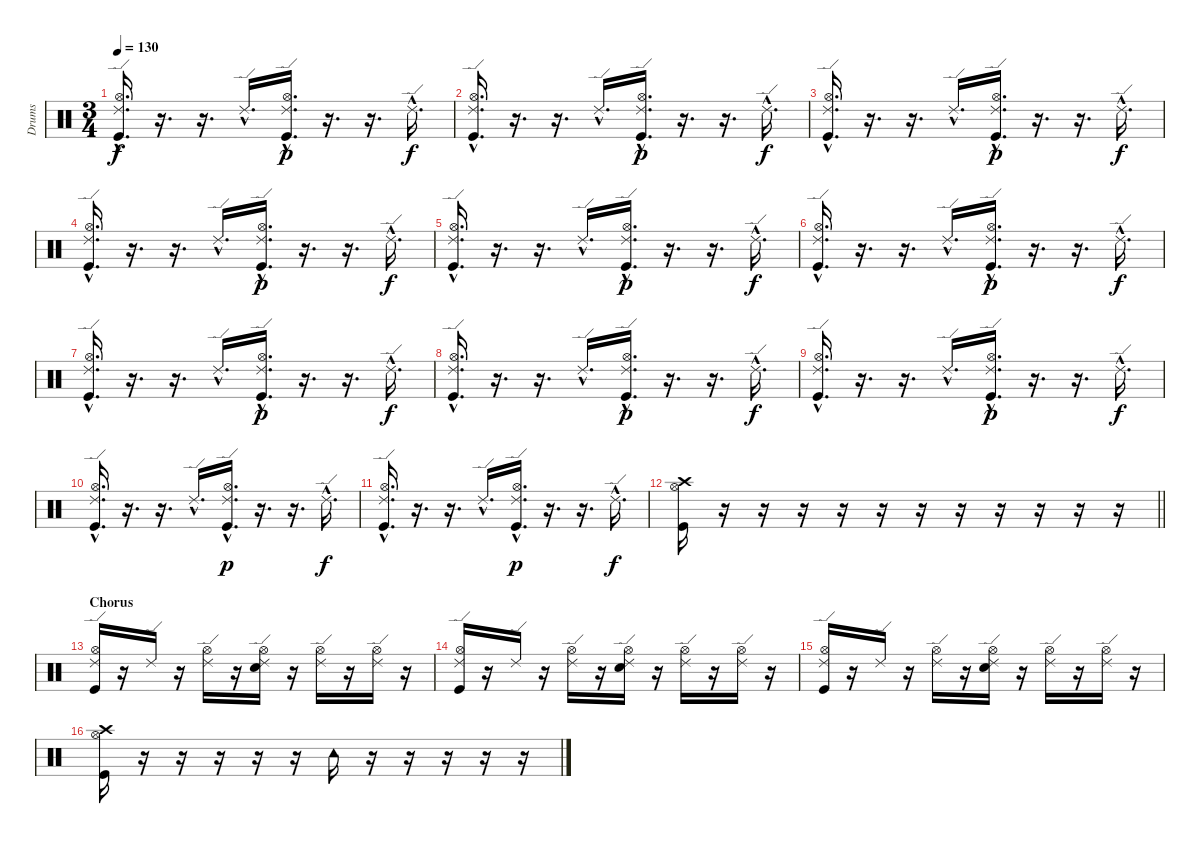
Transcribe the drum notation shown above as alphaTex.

\track ("Drums" "Drums") {instrument percussion}
\staff {score}
\articulation defaults
\ts (3 4)
\tempo 130
\clef neutral
\ks c
("Ride (edge) 2"{hac} "Hi-Hat (open)"{hac} "Kick (hit)"{hac}).16{d dy f} r.16{d} r.16{d} "Ride (edge) 2"{hac}.16{d} ("Ride (edge) 2"{hac} "Hi-Hat (open)"{hac} "Kick (hit)"{hac}).16{d dy p} r.16{d} r.16{d} "Ride (edge) 2"{hac}.16{d dy f} |
("Ride (edge) 2"{hac} "Hi-Hat (open)"{hac} "Kick (hit)"{hac}).16{d} r.16{d} r.16{d} "Ride (edge) 2"{hac}.16{d} ("Ride (edge) 2"{hac} "Hi-Hat (open)"{hac} "Kick (hit)"{hac}).16{d dy p} r.16{d} r.16{d} "Ride (edge) 2"{hac}.16{d dy f} |
("Ride (edge) 2"{hac} "Hi-Hat (open)"{hac} "Kick (hit)"{hac}).16{d} r.16{d} r.16{d} "Ride (edge) 2"{hac}.16{d} ("Ride (edge) 2"{hac} "Hi-Hat (open)"{hac} "Kick (hit)"{hac}).16{d dy p} r.16{d} r.16{d} "Ride (edge) 2"{hac}.16{d dy f} |
("Ride (edge) 2"{hac} "Hi-Hat (open)"{hac} "Kick (hit)"{hac}).16{d} r.16{d} r.16{d} "Ride (edge) 2"{hac}.16{d} ("Ride (edge) 2"{hac} "Hi-Hat (open)"{hac} "Kick (hit)"{hac}).16{d dy p} r.16{d} r.16{d} "Ride (edge) 2"{hac}.16{d dy f} |
("Ride (edge) 2"{hac} "Hi-Hat (open)"{hac} "Kick (hit)"{hac}).16{d} r.16{d} r.16{d} "Ride (edge) 2"{hac}.16{d} ("Ride (edge) 2"{hac} "Hi-Hat (open)"{hac} "Kick (hit)"{hac}).16{d dy p} r.16{d} r.16{d} "Ride (edge) 2"{hac}.16{d dy f} |
("Ride (edge) 2"{hac} "Hi-Hat (open)"{hac} "Kick (hit)"{hac}).16{d} r.16{d} r.16{d} "Ride (edge) 2"{hac}.16{d} ("Ride (edge) 2"{hac} "Hi-Hat (open)"{hac} "Kick (hit)"{hac}).16{d dy p} r.16{d} r.16{d} "Ride (edge) 2"{hac}.16{d dy f} |
("Ride (edge) 2"{hac} "Hi-Hat (open)"{hac} "Kick (hit)"{hac}).16{d} r.16{d} r.16{d} "Ride (edge) 2"{hac}.16{d} ("Ride (edge) 2"{hac} "Hi-Hat (open)"{hac} "Kick (hit)"{hac}).16{d dy p} r.16{d} r.16{d} "Ride (edge) 2"{hac}.16{d dy f} |
("Ride (edge) 2"{hac} "Hi-Hat (open)"{hac} "Kick (hit)"{hac}).16{d} r.16{d} r.16{d} "Ride (edge) 2"{hac}.16{d} ("Ride (edge) 2"{hac} "Hi-Hat (open)"{hac} "Kick (hit)"{hac}).16{d dy p} r.16{d} r.16{d} "Ride (edge) 2"{hac}.16{d dy f} |
("Ride (edge) 2"{hac} "Hi-Hat (open)"{hac} "Kick (hit)"{hac}).16{d} r.16{d} r.16{d} "Ride (edge) 2"{hac}.16{d} ("Ride (edge) 2"{hac} "Hi-Hat (open)"{hac} "Kick (hit)"{hac}).16{d dy p} r.16{d} r.16{d} "Ride (edge) 2"{hac}.16{d dy f} |
("Ride (edge) 2"{hac} "Hi-Hat (open)"{hac} "Kick (hit)"{hac}).16{d} r.16{d} r.16{d} "Ride (edge) 2"{hac}.16{d} ("Ride (edge) 2"{hac} "Hi-Hat (open)"{hac} "Kick (hit)"{hac}).16{d dy p} r.16{d} r.16{d} "Ride (edge) 2"{hac}.16{d dy f} |
("Ride (edge) 2"{hac} "Hi-Hat (open)"{hac} "Kick (hit)"{hac}).16{d} r.16{d} r.16{d} "Ride (edge) 2"{hac}.16{d} ("Ride (edge) 2"{hac} "Hi-Hat (open)"{hac} "Kick (hit)"{hac}).16{d dy p} r.16{d} r.16{d} "Ride (edge) 2"{hac}.16{d dy f} |
\barLineRight lightlight
("Crash high (hit)" "Hi-Hat (open)" "Kick (hit)").16 r.16 r.16 r.16 r.16 r.16 r.16 r.16 r.16 r.16 r.16 r.16 |
\section ("" "Chorus")
("Ride (edge) 2" "Hi-Hat (open)" "Kick (hit)").16 r.16 "Ride (edge) 2".16 r.16 ("Ride (edge) 2" "Hi-Hat (open)").16 r.16 ("Ride (edge) 2" "Hi-Hat (open)" "Electric Snare (hit)").16 r.16 ("Ride (edge) 2" "Hi-Hat (open)").16 r.16 ("Ride (edge) 2" "Hi-Hat (open)").16 r.16 |
("Ride (edge) 2" "Hi-Hat (open)" "Kick (hit)").16 r.16 "Ride (edge) 2".16 r.16 ("Ride (edge) 2" "Hi-Hat (open)").16 r.16 ("Ride (edge) 2" "Hi-Hat (open)" "Electric Snare (hit)").16 r.16 ("Ride (edge) 2" "Hi-Hat (open)").16 r.16 ("Ride (edge) 2" "Hi-Hat (open)").16 r.16 |
("Ride (edge) 2" "Hi-Hat (open)" "Kick (hit)").16 r.16 "Ride (edge) 2".16 r.16 ("Ride (edge) 2" "Hi-Hat (open)").16 r.16 ("Ride (edge) 2" "Hi-Hat (open)" "Electric Snare (hit)").16 r.16 ("Ride (edge) 2" "Hi-Hat (open)").16 r.16 ("Ride (edge) 2" "Hi-Hat (open)").16 r.16 |
("Crash high (hit)" "Hi-Hat (open)" "Kick (hit)").16 r.16 r.16 r.16 r.16 r.16 "Tambourine (hit)".16 r.16 r.16 r.16 r.16 r.16
